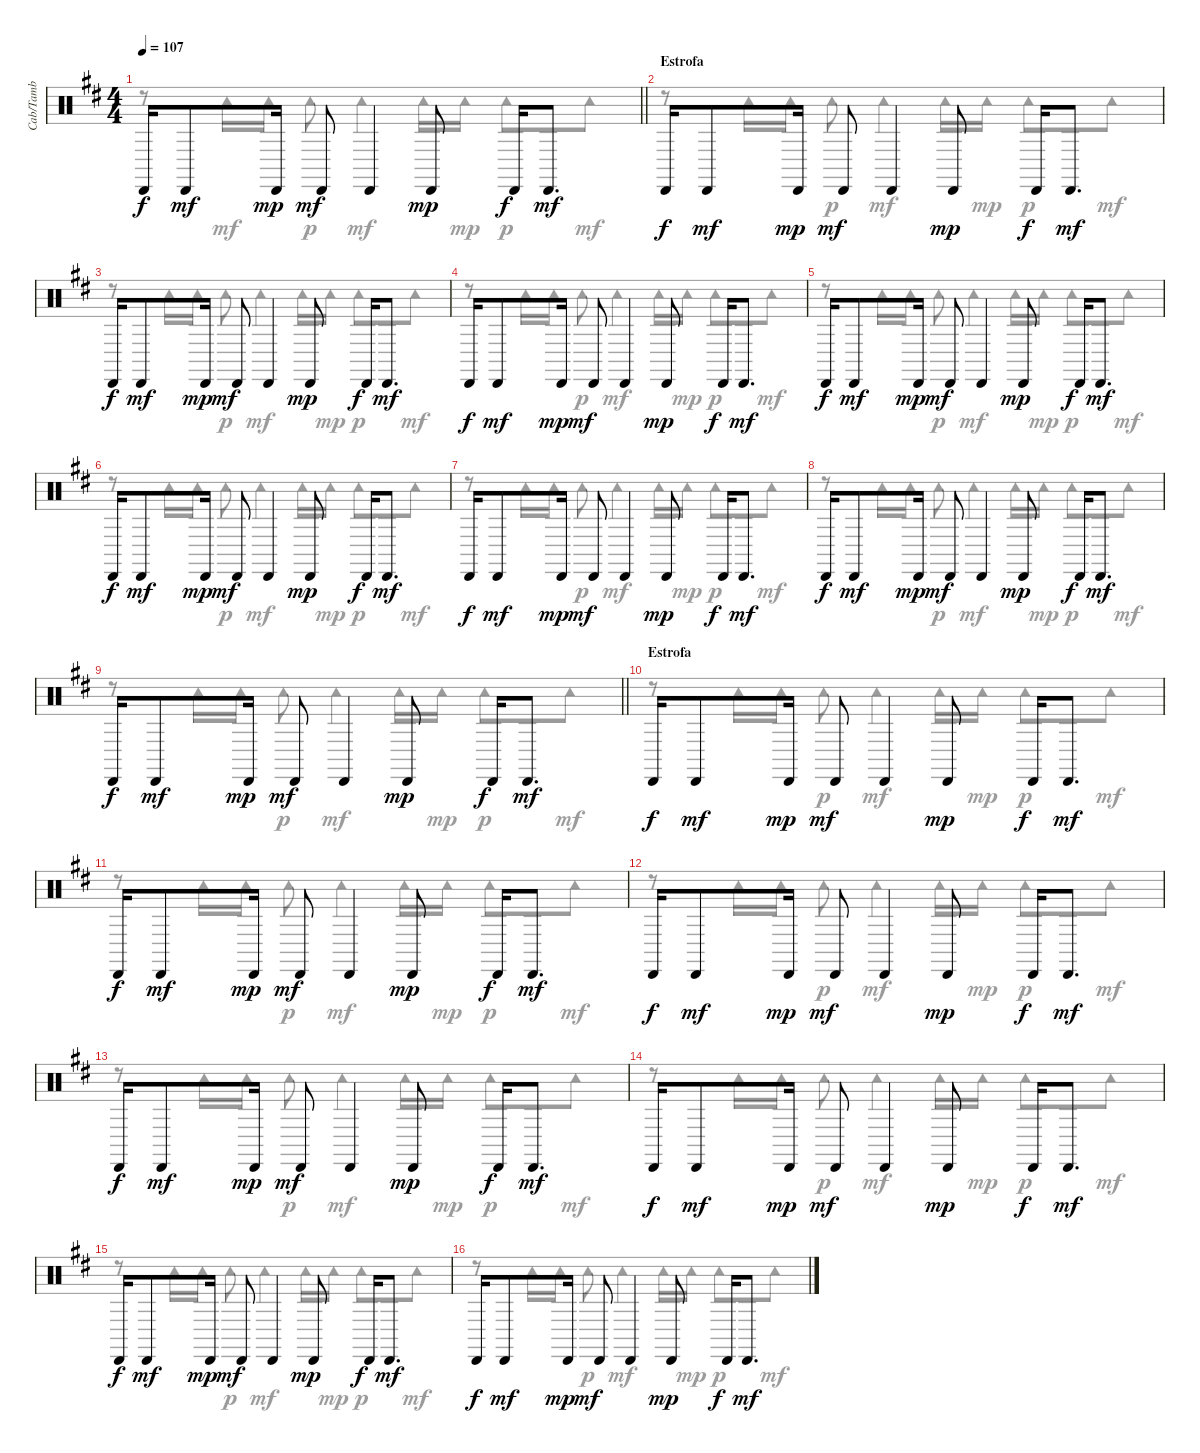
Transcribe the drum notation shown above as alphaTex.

\track ("Cab/Tamb" "Cab/Tamb") {instrument percussion}
\staff {score}
\articulation defaults
\voice
\ts (4 4)
\tempo 107
\clef neutral
\barLineRight lightlight
\ks d "Cabasa (hit)".16{dy f} "Cabasa (hit)".8{dy mf} "Cabasa (hit)".16{dy mp} "Cabasa (hit)".8{dy mf} "Cabasa (hit)".4 "Cabasa (hit)".8{dy mp} "Cabasa (hit)".16{dy f} "Cabasa (hit)".8{d dy mf}
|
\section ("" "Estrofa")
"Cabasa (hit)".16{dy f} "Cabasa (hit)".8{dy mf} "Cabasa (hit)".16{dy mp} "Cabasa (hit)".8{dy mf} "Cabasa (hit)".4 "Cabasa (hit)".8{dy mp} "Cabasa (hit)".16{dy f} "Cabasa (hit)".8{d dy mf} |
"Cabasa (hit)".16{dy f} "Cabasa (hit)".8{dy mf} "Cabasa (hit)".16{dy mp} "Cabasa (hit)".8{dy mf} "Cabasa (hit)".4 "Cabasa (hit)".8{dy mp} "Cabasa (hit)".16{dy f} "Cabasa (hit)".8{d dy mf} |
"Cabasa (hit)".16{dy f} "Cabasa (hit)".8{dy mf} "Cabasa (hit)".16{dy mp} "Cabasa (hit)".8{dy mf} "Cabasa (hit)".4 "Cabasa (hit)".8{dy mp} "Cabasa (hit)".16{dy f} "Cabasa (hit)".8{d dy mf} |
"Cabasa (hit)".16{dy f} "Cabasa (hit)".8{dy mf} "Cabasa (hit)".16{dy mp} "Cabasa (hit)".8{dy mf} "Cabasa (hit)".4 "Cabasa (hit)".8{dy mp} "Cabasa (hit)".16{dy f} "Cabasa (hit)".8{d dy mf} |
"Cabasa (hit)".16{dy f} "Cabasa (hit)".8{dy mf} "Cabasa (hit)".16{dy mp} "Cabasa (hit)".8{dy mf} "Cabasa (hit)".4 "Cabasa (hit)".8{dy mp} "Cabasa (hit)".16{dy f} "Cabasa (hit)".8{d dy mf} |
"Cabasa (hit)".16{dy f} "Cabasa (hit)".8{dy mf} "Cabasa (hit)".16{dy mp} "Cabasa (hit)".8{dy mf} "Cabasa (hit)".4 "Cabasa (hit)".8{dy mp} "Cabasa (hit)".16{dy f} "Cabasa (hit)".8{d dy mf} |
"Cabasa (hit)".16{dy f} "Cabasa (hit)".8{dy mf} "Cabasa (hit)".16{dy mp} "Cabasa (hit)".8{dy mf} "Cabasa (hit)".4 "Cabasa (hit)".8{dy mp} "Cabasa (hit)".16{dy f} "Cabasa (hit)".8{d dy mf} |
\barLineRight lightlight "Cabasa (hit)".16{dy f} "Cabasa (hit)".8{dy mf} "Cabasa (hit)".16{dy mp} "Cabasa (hit)".8{dy mf} "Cabasa (hit)".4 "Cabasa (hit)".8{dy mp} "Cabasa (hit)".16{dy f} "Cabasa (hit)".8{d dy mf}
|
\section ("" "Estrofa")
"Cabasa (hit)".16{dy f} "Cabasa (hit)".8{dy mf} "Cabasa (hit)".16{dy mp} "Cabasa (hit)".8{dy mf} "Cabasa (hit)".4 "Cabasa (hit)".8{dy mp} "Cabasa (hit)".16{dy f} "Cabasa (hit)".8{d dy mf} |
"Cabasa (hit)".16{dy f} "Cabasa (hit)".8{dy mf} "Cabasa (hit)".16{dy mp} "Cabasa (hit)".8{dy mf} "Cabasa (hit)".4 "Cabasa (hit)".8{dy mp} "Cabasa (hit)".16{dy f} "Cabasa (hit)".8{d dy mf} |
"Cabasa (hit)".16{dy f} "Cabasa (hit)".8{dy mf} "Cabasa (hit)".16{dy mp} "Cabasa (hit)".8{dy mf} "Cabasa (hit)".4 "Cabasa (hit)".8{dy mp} "Cabasa (hit)".16{dy f} "Cabasa (hit)".8{d dy mf} |
"Cabasa (hit)".16{dy f} "Cabasa (hit)".8{dy mf} "Cabasa (hit)".16{dy mp} "Cabasa (hit)".8{dy mf} "Cabasa (hit)".4 "Cabasa (hit)".8{dy mp} "Cabasa (hit)".16{dy f} "Cabasa (hit)".8{d dy mf} |
"Cabasa (hit)".16{dy f} "Cabasa (hit)".8{dy mf} "Cabasa (hit)".16{dy mp} "Cabasa (hit)".8{dy mf} "Cabasa (hit)".4 "Cabasa (hit)".8{dy mp} "Cabasa (hit)".16{dy f} "Cabasa (hit)".8{d dy mf} |
"Cabasa (hit)".16{dy f} "Cabasa (hit)".8{dy mf} "Cabasa (hit)".16{dy mp} "Cabasa (hit)".8{dy mf} "Cabasa (hit)".4 "Cabasa (hit)".8{dy mp} "Cabasa (hit)".16{dy f} "Cabasa (hit)".8{d dy mf} |
"Cabasa (hit)".16{dy f} "Cabasa (hit)".8{dy mf} "Cabasa (hit)".16{dy mp} "Cabasa (hit)".8{dy mf} "Cabasa (hit)".4 "Cabasa (hit)".8{dy mp} "Cabasa (hit)".16{dy f} "Cabasa (hit)".8{d dy mf}
\voice
\clef neutral
\ottava regular
\simile none
\barLineRight lightlight
\ks d
r.8{dy mf} "Tambourine (hit)".16 "Tambourine (hit)".16{dy mp} "Tambourine (hit)".8{dy p} "Tambourine (hit)".4{dy mf} "Tambourine (hit)".16 "Tambourine (hit)".16{dy mp} "Tambourine (hit)".8{dy p} "Tambourine (hit)".8{dy mf} |
r.8 "Tambourine (hit)".16 "Tambourine (hit)".16{dy mp} "Tambourine (hit)".8{dy p} "Tambourine (hit)".4{dy mf} "Tambourine (hit)".16 "Tambourine (hit)".16{dy mp} "Tambourine (hit)".8{dy p} "Tambourine (hit)".8{dy mf} |
r.8 "Tambourine (hit)".16 "Tambourine (hit)".16{dy mp} "Tambourine (hit)".8{dy p} "Tambourine (hit)".4{dy mf} "Tambourine (hit)".16 "Tambourine (hit)".16{dy mp} "Tambourine (hit)".8{dy p} "Tambourine (hit)".8{dy mf} |
r.8 "Tambourine (hit)".16 "Tambourine (hit)".16{dy mp} "Tambourine (hit)".8{dy p} "Tambourine (hit)".4{dy mf} "Tambourine (hit)".16 "Tambourine (hit)".16{dy mp} "Tambourine (hit)".8{dy p} "Tambourine (hit)".8{dy mf} |
r.8 "Tambourine (hit)".16 "Tambourine (hit)".16{dy mp} "Tambourine (hit)".8{dy p} "Tambourine (hit)".4{dy mf} "Tambourine (hit)".16 "Tambourine (hit)".16{dy mp} "Tambourine (hit)".8{dy p} "Tambourine (hit)".8{dy mf} |
r.8 "Tambourine (hit)".16 "Tambourine (hit)".16{dy mp} "Tambourine (hit)".8{dy p} "Tambourine (hit)".4{dy mf} "Tambourine (hit)".16 "Tambourine (hit)".16{dy mp} "Tambourine (hit)".8{dy p} "Tambourine (hit)".8{dy mf} |
r.8 "Tambourine (hit)".16 "Tambourine (hit)".16{dy mp} "Tambourine (hit)".8{dy p} "Tambourine (hit)".4{dy mf} "Tambourine (hit)".16 "Tambourine (hit)".16{dy mp} "Tambourine (hit)".8{dy p} "Tambourine (hit)".8{dy mf} |
r.8 "Tambourine (hit)".16 "Tambourine (hit)".16{dy mp} "Tambourine (hit)".8{dy p} "Tambourine (hit)".4{dy mf} "Tambourine (hit)".16 "Tambourine (hit)".16{dy mp} "Tambourine (hit)".8{dy p} "Tambourine (hit)".8{dy mf} |
\barLineRight lightlight
r.8 "Tambourine (hit)".16 "Tambourine (hit)".16{dy mp} "Tambourine (hit)".8{dy p} "Tambourine (hit)".4{dy mf} "Tambourine (hit)".16 "Tambourine (hit)".16{dy mp} "Tambourine (hit)".8{dy p} "Tambourine (hit)".8{dy mf} |
r.8 "Tambourine (hit)".16 "Tambourine (hit)".16{dy mp} "Tambourine (hit)".8{dy p} "Tambourine (hit)".4{dy mf} "Tambourine (hit)".16 "Tambourine (hit)".16{dy mp} "Tambourine (hit)".8{dy p} "Tambourine (hit)".8{dy mf} |
r.8 "Tambourine (hit)".16 "Tambourine (hit)".16{dy mp} "Tambourine (hit)".8{dy p} "Tambourine (hit)".4{dy mf} "Tambourine (hit)".16 "Tambourine (hit)".16{dy mp} "Tambourine (hit)".8{dy p} "Tambourine (hit)".8{dy mf} |
r.8 "Tambourine (hit)".16 "Tambourine (hit)".16{dy mp} "Tambourine (hit)".8{dy p} "Tambourine (hit)".4{dy mf} "Tambourine (hit)".16 "Tambourine (hit)".16{dy mp} "Tambourine (hit)".8{dy p} "Tambourine (hit)".8{dy mf} |
r.8 "Tambourine (hit)".16 "Tambourine (hit)".16{dy mp} "Tambourine (hit)".8{dy p} "Tambourine (hit)".4{dy mf} "Tambourine (hit)".16 "Tambourine (hit)".16{dy mp} "Tambourine (hit)".8{dy p} "Tambourine (hit)".8{dy mf} |
r.8 "Tambourine (hit)".16 "Tambourine (hit)".16{dy mp} "Tambourine (hit)".8{dy p} "Tambourine (hit)".4{dy mf} "Tambourine (hit)".16 "Tambourine (hit)".16{dy mp} "Tambourine (hit)".8{dy p} "Tambourine (hit)".8{dy mf} |
r.8 "Tambourine (hit)".16 "Tambourine (hit)".16{dy mp} "Tambourine (hit)".8{dy p} "Tambourine (hit)".4{dy mf} "Tambourine (hit)".16 "Tambourine (hit)".16{dy mp} "Tambourine (hit)".8{dy p} "Tambourine (hit)".8{dy mf} |
r.8 "Tambourine (hit)".16 "Tambourine (hit)".16{dy mp} "Tambourine (hit)".8{dy p} "Tambourine (hit)".4{dy mf} "Tambourine (hit)".16 "Tambourine (hit)".16{dy mp} "Tambourine (hit)".8{dy p} "Tambourine (hit)".8{dy mf}
